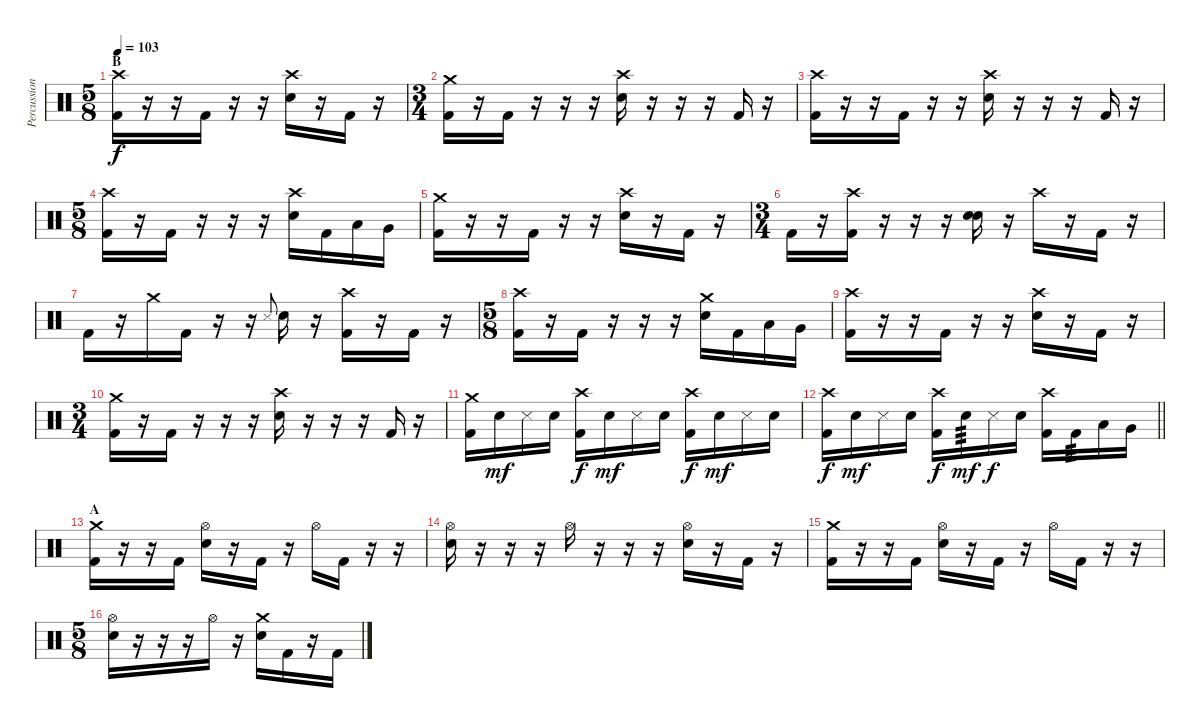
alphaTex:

\track ("Percussion" "Percussion") {instrument percussion}
\staff {score}
\articulation defaults
\ts (5 8)
\section ("" "B")
\tempo 103
\clef neutral
\ks c
("Crash high (hit)" "Kick (hit) 2").16{dy f} r.16 r.16 "Kick (hit) 2".16 r.16 r.16 ("Crash high (hit)" "Snare (hit) 2").16 r.16 "Kick (hit) 2".16 r.16 |
\ts (3 4)
("Crash medium (hit)" "Kick (hit) 2").16 r.16 "Kick (hit) 2".16 r.16 r.16 r.16 ("Crash high (hit)" "Snare (hit) 2").16 r.16 r.16 r.16 "Kick (hit) 2".16 r.16 |
("Crash high (hit)" "Kick (hit) 2").16 r.16 r.16 "Kick (hit) 2".16 r.16 r.16 ("Crash high (hit)" "Snare (hit) 2").16 r.16 r.16 r.16 "Kick (hit) 2".16 r.16 |
\ts (5 8)
("Crash high (hit)" "Kick (hit) 2").16 r.16 "Kick (hit) 2".16 r.16 r.16 r.16 ("Crash high (hit)" "Snare (hit) 2").16 "Kick (hit) 2".16 "Low Tom (hit)".16 "Very Low Tom (hit)".16 |
("Crash medium (hit)" "Kick (hit) 2").16 r.16 r.16 "Kick (hit) 2".16 r.16 r.16 ("Crash high (hit)" "Snare (hit) 2").16 r.16 "Kick (hit) 2".16 r.16 |
\ts (3 4)
"Kick (hit) 2".16 r.16 ("Crash high (hit)" "Kick (hit) 2").16 r.16 r.16 r.16 ("Snare (hit)" "Snare (hit) 2").16 r.16 "Crash high (hit)".16 r.16 "Kick (hit) 2".16 r.16 |
"Kick (hit) 2".16 r.16 "Crash medium (hit)".16 "Kick (hit) 2".16 r.16 r.16 "Metronome (hit)".8{gr onbeat} "Snare (hit) 2".16 r.16 ("Crash high (hit)" "Kick (hit) 2").16 r.16 "Kick (hit) 2".16 r.16 |
\ts (5 8)
("Crash high (hit)" "Kick (hit) 2").16 r.16 "Kick (hit) 2".16 r.16 r.16 r.16 ("Crash medium (hit)" "Snare (hit) 2").16 "Kick (hit) 2".16 "Low Tom (hit)".16 "Very Low Tom (hit)".16 |
("Crash high (hit)" "Kick (hit) 2").16 r.16 r.16 "Kick (hit) 2".16 r.16 r.16 ("Crash high (hit)" "Snare (hit) 2").16 r.16 "Kick (hit) 2".16 r.16 |
\ts (3 4)
("Crash medium (hit)" "Kick (hit) 2").16 r.16 "Kick (hit) 2".16 r.16 r.16 r.16 ("Crash high (hit)" "Snare (hit) 2").16 r.16 r.16 r.16 "Kick (hit) 2".16 r.16 |
("Crash medium (hit)" "Kick (hit) 2").16 "Snare (hit) 2".16{dy mf} "Metronome (hit)".16 "Snare (hit) 2".16 ("Crash high (hit)" "Kick (hit) 2").16{dy f} "Snare (hit) 2".16{dy mf} "Metronome (hit)".16 "Snare (hit) 2".16 ("Crash high (hit)" "Kick (hit) 2").16{dy f} "Snare (hit) 2".16{dy mf} "Metronome (hit)".16 "Snare (hit) 2".16 |
\barLineRight lightlight
("Crash high (hit)" "Kick (hit) 2").16{dy f} "Snare (hit) 2".16{dy mf} "Metronome (hit)".16 "Snare (hit) 2".16 ("Crash high (hit)" "Kick (hit) 2").16{dy f} "Snare (hit) 2".16{tp 3 dy mf} "Metronome (hit)".16{dy f} "Snare (hit) 2".16 ("Crash high (hit)" "Kick (hit) 2").16 "Kick (hit) 2".16{tp 3} "Low Tom (hit)".16 "Very Low Tom (hit)".16 |
\section ("" "A")
("Crash medium (hit)" "Kick (hit) 2").16 r.16 r.16 "Kick (hit) 2".16 ("Hi-Hat (open)" "Snare (hit) 2").16 r.16 "Kick (hit) 2".16 r.16 "Hi-Hat (open)".16 "Kick (hit) 2".16 r.16 r.16 |
("Hi-Hat (open)" "Snare (hit) 2").16 r.16 r.16 r.16 "Hi-Hat (open)".16 r.16 r.16 r.16 ("Hi-Hat (open)" "Snare (hit) 2").16 r.16 "Kick (hit) 2".16 r.16 |
("Crash medium (hit)" "Kick (hit) 2").16 r.16 r.16 "Kick (hit) 2".16 ("Hi-Hat (open)" "Snare (hit) 2").16 r.16 "Kick (hit) 2".16 r.16 "Hi-Hat (open)".16 "Kick (hit) 2".16 r.16 r.16 |
\ts (5 8)
("Hi-Hat (open)" "Snare (hit) 2").16 r.16 r.16 r.16 "Hi-Hat (open)".16 r.16 ("Crash medium (hit)" "Snare (hit) 2").16 "Kick (hit) 2".16 r.16 "Kick (hit) 2".16
